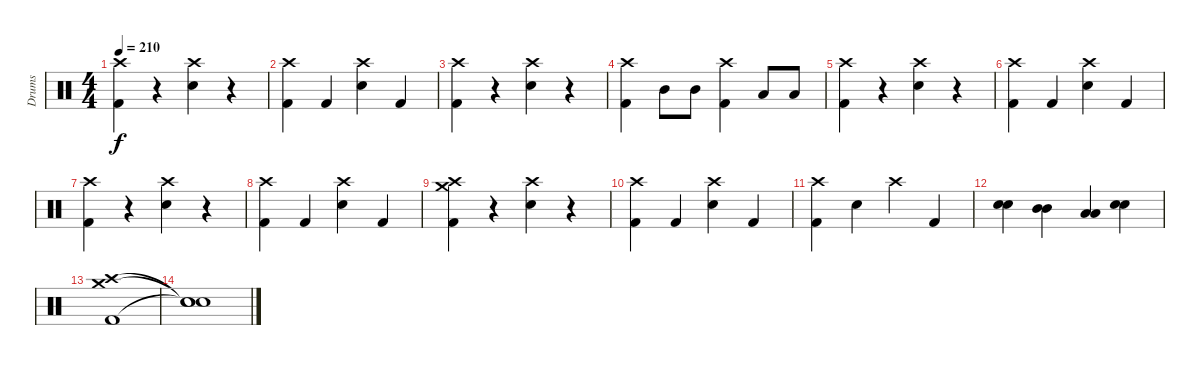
\track ("Drums" "Drums") {instrument percussion}
\staff {score}
\articulation defaults
\ts (4 4)
\tempo 210
\clef neutral
\ks c
("Crash high (hit)" "Kick (hit) 2").4{dy f} r.4 ("Crash high (hit)" "Electric Snare (hit)").4 r.4 |
("Crash high (hit)" "Kick (hit) 2").4 "Kick (hit) 2".4 ("Crash high (hit)" "Electric Snare (hit)").4 "Kick (hit) 2".4 |
("Crash high (hit)" "Kick (hit) 2").4 r.4 ("Crash high (hit)" "Electric Snare (hit)").4 r.4 |
("Crash high (hit)" "Kick (hit) 2").4 "Mid Tom (hit)".8 "Mid Tom (hit)".8 ("Crash high (hit)" "Kick (hit) 2").4 "Low Tom (hit)".8 "Low Tom (hit)".8 |
("Crash high (hit)" "Kick (hit) 2").4 r.4 ("Crash high (hit)" "Electric Snare (hit)").4 r.4 |
("Crash high (hit)" "Kick (hit) 2").4 "Kick (hit) 2".4 ("Crash high (hit)" "Electric Snare (hit)").4 "Kick (hit) 2".4 |
("Crash high (hit)" "Kick (hit) 2").4 r.4 ("Crash high (hit)" "Electric Snare (hit)").4 r.4 |
("Crash high (hit)" "Kick (hit) 2").4 "Kick (hit) 2".4 ("Crash high (hit)" "Electric Snare (hit)").4 "Kick (hit) 2".4 |
("Crash high (hit)" "Crash medium (hit)" "Kick (hit) 2").4 r.4 ("Crash high (hit)" "Electric Snare (hit)").4 r.4 |
("Crash high (hit)" "Kick (hit) 2").4 "Kick (hit) 2".4 ("Crash high (hit)" "Electric Snare (hit)").4 "Kick (hit) 2".4 |
("Crash high (hit)" "Kick (hit) 2").4 "Electric Snare (hit)".4 "Crash high (hit)".4 "Kick (hit) 2".4 |
("Electric Snare (hit)" "Electric Snare (hit)").4 ("Mid Tom (hit)" "Mid Tom (hit)").4 ("Low Tom (hit)" "Low Tom (hit)").4 ("Electric Snare (hit)" "Electric Snare (hit)").4 |
("Crash high (hit)" "Crash medium (hit)" "Kick (hit) 2").1 |
("Snare (hit)"{t} "Snare (hit)"{t} "Snare (hit)"{t}).1
